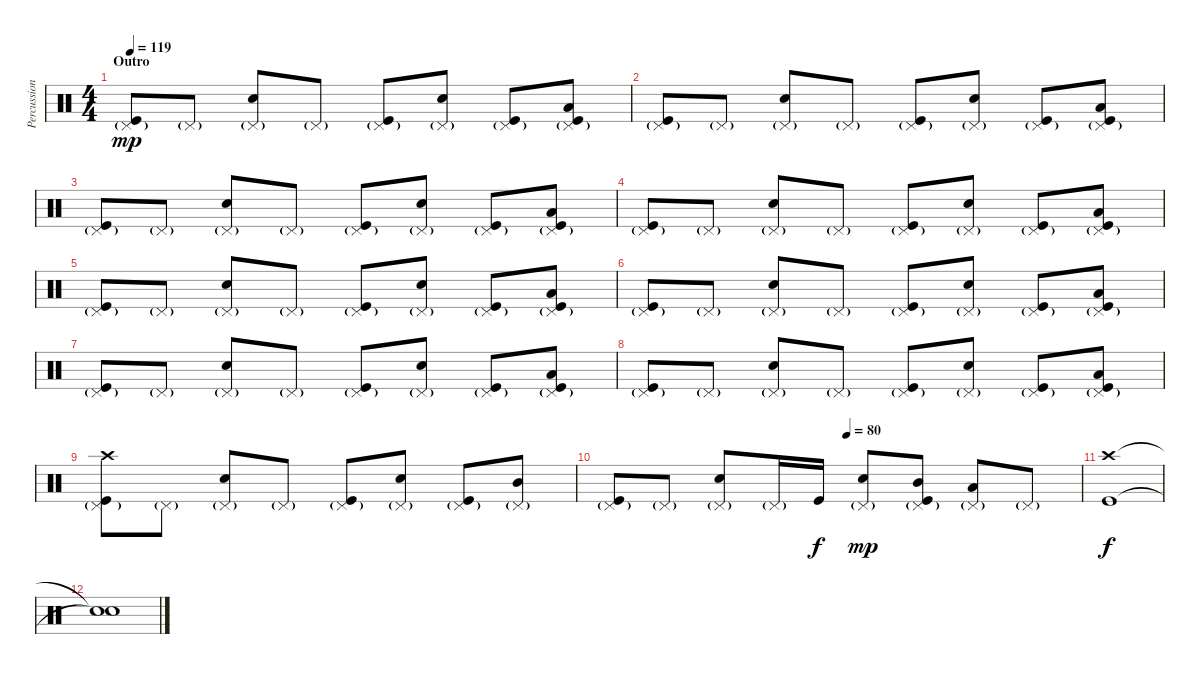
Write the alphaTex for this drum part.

\track ("Percussion" "Percussion") {instrument percussion}
\staff {score}
\articulation defaults
\ts (4 4)
\section ("" "Outro")
\tempo 119
\clef neutral
\ks c
("Pedal Hi-Hat (hit)"{g} "Kick (hit)").8{dy mp} "Pedal Hi-Hat (hit)"{g}.8 ("Pedal Hi-Hat (hit)"{g} "Snare (hit) 2").8 "Pedal Hi-Hat (hit)"{g}.8 ("Pedal Hi-Hat (hit)"{g} "Kick (hit)").8 ("Pedal Hi-Hat (hit)"{g} "Snare (hit) 2").8 ("Pedal Hi-Hat (hit)"{g} "Kick (hit)").8 ("Pedal Hi-Hat (hit)"{g} "Low Tom (hit)" "Kick (hit)").8 |
("Pedal Hi-Hat (hit)"{g} "Kick (hit)").8 "Pedal Hi-Hat (hit)"{g}.8 ("Pedal Hi-Hat (hit)"{g} "Snare (hit) 2").8 "Pedal Hi-Hat (hit)"{g}.8 ("Pedal Hi-Hat (hit)"{g} "Kick (hit)").8 ("Pedal Hi-Hat (hit)"{g} "Snare (hit) 2").8 ("Pedal Hi-Hat (hit)"{g} "Kick (hit)").8 ("Pedal Hi-Hat (hit)"{g} "Low Tom (hit)" "Kick (hit)").8 |
("Pedal Hi-Hat (hit)"{g} "Kick (hit)").8 "Pedal Hi-Hat (hit)"{g}.8 ("Pedal Hi-Hat (hit)"{g} "Snare (hit) 2").8 "Pedal Hi-Hat (hit)"{g}.8 ("Pedal Hi-Hat (hit)"{g} "Kick (hit)").8 ("Pedal Hi-Hat (hit)"{g} "Snare (hit) 2").8 ("Pedal Hi-Hat (hit)"{g} "Kick (hit)").8 ("Pedal Hi-Hat (hit)"{g} "Low Tom (hit)" "Kick (hit)").8 |
("Pedal Hi-Hat (hit)"{g} "Kick (hit)").8 "Pedal Hi-Hat (hit)"{g}.8 ("Pedal Hi-Hat (hit)"{g} "Snare (hit) 2").8 "Pedal Hi-Hat (hit)"{g}.8 ("Pedal Hi-Hat (hit)"{g} "Kick (hit)").8 ("Pedal Hi-Hat (hit)"{g} "Snare (hit) 2").8 ("Pedal Hi-Hat (hit)"{g} "Kick (hit)").8 ("Pedal Hi-Hat (hit)"{g} "Low Tom (hit)" "Kick (hit)").8 |
("Pedal Hi-Hat (hit)"{g} "Kick (hit)").8 "Pedal Hi-Hat (hit)"{g}.8 ("Pedal Hi-Hat (hit)"{g} "Snare (hit) 2").8 "Pedal Hi-Hat (hit)"{g}.8 ("Pedal Hi-Hat (hit)"{g} "Kick (hit)").8 ("Pedal Hi-Hat (hit)"{g} "Snare (hit) 2").8 ("Pedal Hi-Hat (hit)"{g} "Kick (hit)").8 ("Pedal Hi-Hat (hit)"{g} "Low Tom (hit)" "Kick (hit)").8 |
("Pedal Hi-Hat (hit)"{g} "Kick (hit)").8 "Pedal Hi-Hat (hit)"{g}.8 ("Pedal Hi-Hat (hit)"{g} "Snare (hit) 2").8 "Pedal Hi-Hat (hit)"{g}.8 ("Pedal Hi-Hat (hit)"{g} "Kick (hit)").8 ("Pedal Hi-Hat (hit)"{g} "Snare (hit) 2").8 ("Pedal Hi-Hat (hit)"{g} "Kick (hit)").8 ("Pedal Hi-Hat (hit)"{g} "Low Tom (hit)" "Kick (hit)").8 |
("Pedal Hi-Hat (hit)"{g} "Kick (hit)").8 "Pedal Hi-Hat (hit)"{g}.8 ("Pedal Hi-Hat (hit)"{g} "Snare (hit) 2").8 "Pedal Hi-Hat (hit)"{g}.8 ("Pedal Hi-Hat (hit)"{g} "Kick (hit)").8 ("Pedal Hi-Hat (hit)"{g} "Snare (hit) 2").8 ("Pedal Hi-Hat (hit)"{g} "Kick (hit)").8 ("Pedal Hi-Hat (hit)"{g} "Low Tom (hit)" "Kick (hit)").8 |
("Pedal Hi-Hat (hit)"{g} "Kick (hit)").8 "Pedal Hi-Hat (hit)"{g}.8 ("Pedal Hi-Hat (hit)"{g} "Snare (hit) 2").8 "Pedal Hi-Hat (hit)"{g}.8 ("Pedal Hi-Hat (hit)"{g} "Kick (hit)").8 ("Pedal Hi-Hat (hit)"{g} "Snare (hit) 2").8 ("Pedal Hi-Hat (hit)"{g} "Kick (hit)").8 ("Pedal Hi-Hat (hit)"{g} "Low Tom (hit)" "Kick (hit)").8 |
("Crash high (hit)" "Pedal Hi-Hat (hit)"{g} "Kick (hit)").8 "Pedal Hi-Hat (hit)"{g}.8 ("Pedal Hi-Hat (hit)"{g} "Snare (hit) 2").8 "Pedal Hi-Hat (hit)"{g}.8 ("Pedal Hi-Hat (hit)"{g} "Kick (hit)").8 ("Pedal Hi-Hat (hit)"{g} "Snare (hit) 2").8 ("Pedal Hi-Hat (hit)"{g} "Kick (hit)").8 ("Pedal Hi-Hat (hit)"{g} "Mid Tom (hit)").8 |
\tempo (80 0.5)
("Pedal Hi-Hat (hit)"{g} "Kick (hit)").8 "Pedal Hi-Hat (hit)"{g}.8 ("Pedal Hi-Hat (hit)"{g} "Snare (hit) 2").8 "Pedal Hi-Hat (hit)"{g}.16 "Kick (hit)".16{dy f} ("Pedal Hi-Hat (hit)"{g} "Snare (hit) 2").8{dy mp} ("Pedal Hi-Hat (hit)"{g} "Mid Tom (hit)" "Kick (hit)").8 ("Pedal Hi-Hat (hit)"{g} "Low Tom (hit)").8 "Pedal Hi-Hat (hit)"{g}.8 |
("Crash high (hit)" "Kick (hit)").1{dy f} |
("Snare (hit)"{t} "Snare (hit)"{t}).1
